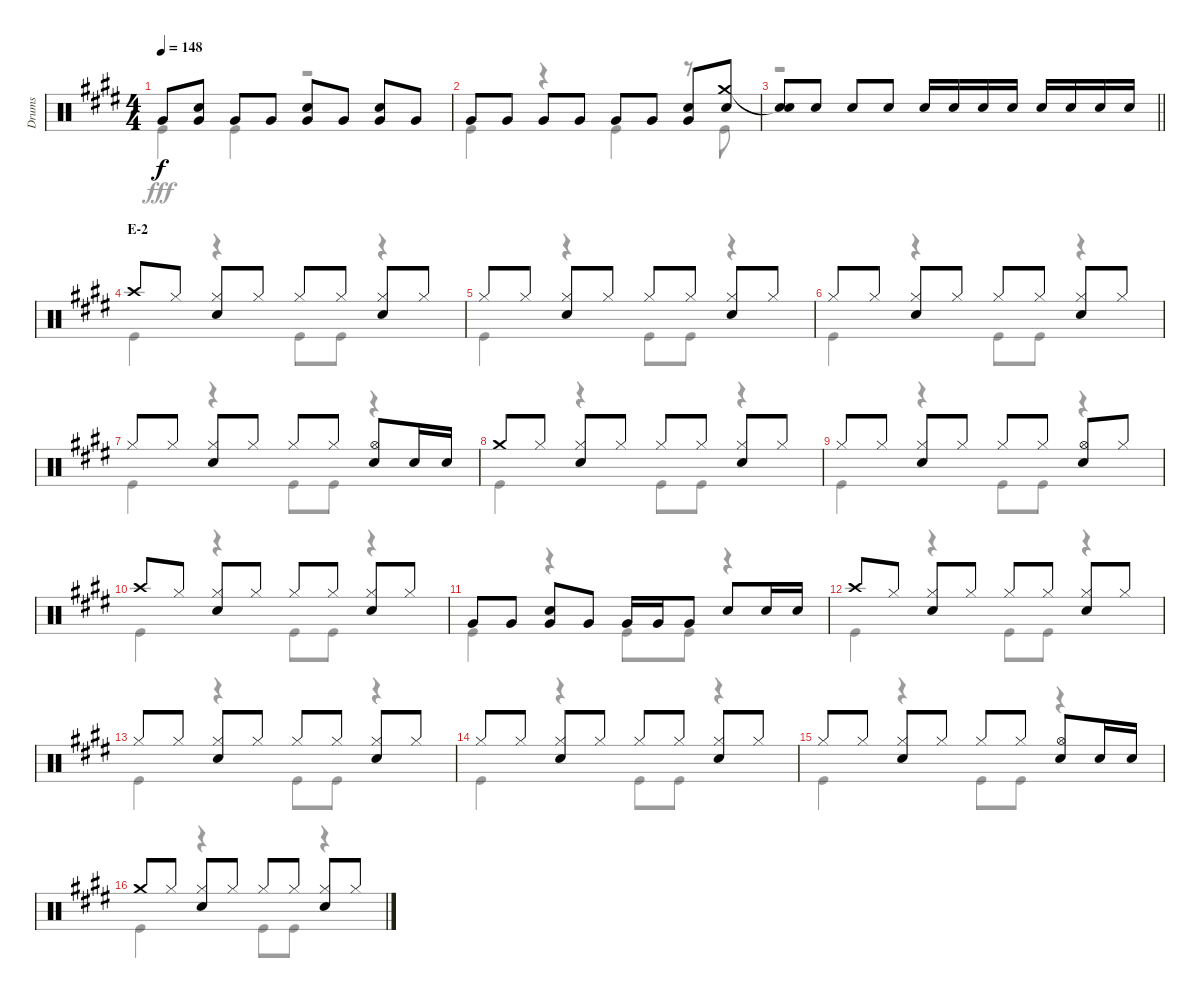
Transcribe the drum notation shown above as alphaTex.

\track ("Drums" "Drums") {instrument percussion}
\staff {score}
\articulation defaults
\voice
\ts (4 4)
\tempo 148
\clef neutral
\ks e "Very Low Tom (hit)".8{dy f}
("Snare (hit) 2" "Very Low Tom (hit)").8 "Very Low Tom (hit)".8 "Very Low Tom (hit)".8 ("Snare (hit) 2" "Very Low Tom (hit)").8 "Very Low Tom (hit)".8 ("Snare (hit) 2" "Very Low Tom (hit)").8 "Very Low Tom (hit)".8 |
"Very Low Tom (hit)".8 "Very Low Tom (hit)".8 "Very Low Tom (hit)".8 "Very Low Tom (hit)".8 "Very Low Tom (hit)".8 "Very Low Tom (hit)".8 ("Snare (hit) 2" "Very Low Tom (hit)").8 ("Crash medium (hit)" "Snare (hit) 2").8 |
\barLineRight lightlight
("Snare (hit)"{t} "Snare (hit) 2").8 "Snare (hit) 2".8 "Snare (hit) 2".8 "Snare (hit) 2".8 "Snare (hit) 2".16 "Snare (hit) 2".16 "Snare (hit) 2".16 "Snare (hit) 2".16 "Snare (hit) 2".16 "Snare (hit) 2".16 "Snare (hit) 2".16 "Snare (hit) 2".16 |
\section ("" "E-2")
"Crash high (hit)".8 "Hi-Hat (closed)".8 ("Hi-Hat (closed)" "Snare (hit) 2").8 "Hi-Hat (closed)".8 "Hi-Hat (closed)".8 "Hi-Hat (closed)".8 ("Hi-Hat (closed)" "Snare (hit) 2").8 "Hi-Hat (closed)".8 |
"Hi-Hat (closed)".8 "Hi-Hat (closed)".8 ("Hi-Hat (closed)" "Snare (hit) 2").8 "Hi-Hat (closed)".8 "Hi-Hat (closed)".8 "Hi-Hat (closed)".8 ("Hi-Hat (closed)" "Snare (hit) 2").8 "Hi-Hat (closed)".8 |
"Hi-Hat (closed)".8 "Hi-Hat (closed)".8 ("Hi-Hat (closed)" "Snare (hit) 2").8 "Hi-Hat (closed)".8 "Hi-Hat (closed)".8 "Hi-Hat (closed)".8 ("Hi-Hat (closed)" "Snare (hit) 2").8 "Hi-Hat (closed)".8 |
"Hi-Hat (closed)".8 "Hi-Hat (closed)".8 ("Hi-Hat (closed)" "Snare (hit) 2").8 "Hi-Hat (closed)".8 "Hi-Hat (closed)".8 "Hi-Hat (closed)".8 ("Hi-Hat (open)" "Snare (hit) 2").8 "Snare (hit) 2".16 "Snare (hit) 2".16 |
"Crash medium (hit)".8 "Hi-Hat (closed)".8 ("Hi-Hat (closed)" "Snare (hit) 2").8 "Hi-Hat (closed)".8 "Hi-Hat (closed)".8 "Hi-Hat (closed)".8 ("Hi-Hat (closed)" "Snare (hit) 2").8 "Hi-Hat (closed)".8 |
"Hi-Hat (closed)".8 "Hi-Hat (closed)".8 ("Hi-Hat (closed)" "Snare (hit) 2").8 "Hi-Hat (closed)".8 "Hi-Hat (closed)".8 "Hi-Hat (closed)".8 ("Hi-Hat (open)" "Snare (hit) 2").8 "Hi-Hat (closed)".8 |
"Crash high (hit)".8 "Hi-Hat (closed)".8 ("Hi-Hat (closed)" "Snare (hit) 2").8 "Hi-Hat (closed)".8 "Hi-Hat (closed)".8 "Hi-Hat (closed)".8 ("Hi-Hat (closed)" "Snare (hit) 2").8 "Hi-Hat (closed)".8 |
"Very Low Tom (hit)".8 "Very Low Tom (hit)".8 ("Snare (hit) 2" "Very Low Tom (hit)").8 "Very Low Tom (hit)".8 "Very Low Tom (hit)".16 "Very Low Tom (hit)".16 "Very Low Tom (hit)".8 "Snare (hit) 2".8 "Snare (hit) 2".16 "Snare (hit) 2".16 |
"Crash high (hit)".8 "Hi-Hat (closed)".8 ("Hi-Hat (closed)" "Snare (hit) 2").8 "Hi-Hat (closed)".8 "Hi-Hat (closed)".8 "Hi-Hat (closed)".8 ("Hi-Hat (closed)" "Snare (hit) 2").8 "Hi-Hat (closed)".8 |
"Hi-Hat (closed)".8 "Hi-Hat (closed)".8 ("Hi-Hat (closed)" "Snare (hit) 2").8 "Hi-Hat (closed)".8 "Hi-Hat (closed)".8 "Hi-Hat (closed)".8 ("Hi-Hat (closed)" "Snare (hit) 2").8 "Hi-Hat (closed)".8 |
"Hi-Hat (closed)".8 "Hi-Hat (closed)".8 ("Hi-Hat (closed)" "Snare (hit) 2").8 "Hi-Hat (closed)".8 "Hi-Hat (closed)".8 "Hi-Hat (closed)".8 ("Hi-Hat (closed)" "Snare (hit) 2").8 "Hi-Hat (closed)".8 |
"Hi-Hat (closed)".8 "Hi-Hat (closed)".8 ("Hi-Hat (closed)" "Snare (hit) 2").8 "Hi-Hat (closed)".8 "Hi-Hat (closed)".8 "Hi-Hat (closed)".8 ("Hi-Hat (open)" "Snare (hit) 2").8 "Snare (hit) 2".16 "Snare (hit) 2".16 |
"Crash medium (hit)".8 "Hi-Hat (closed)".8 ("Hi-Hat (closed)" "Snare (hit) 2").8 "Hi-Hat (closed)".8 "Hi-Hat (closed)".8 "Hi-Hat (closed)".8 ("Hi-Hat (closed)" "Snare (hit) 2").8 "Hi-Hat (closed)".8
\voice
\clef neutral
\ottava regular
\simile none
\ks e "Kick (hit)".4{dy fff} "Kick (hit)".4
r.2 |
"Kick (hit)".4 r.4 "Kick (hit)".4 r.8 "Kick (hit)".8 |
\barLineRight lightlight
r.1 |
"Kick (hit)".4 r.4 "Kick (hit)".8 "Kick (hit)".8 r.4 |
"Kick (hit)".4 r.4 "Kick (hit)".8 "Kick (hit)".8 r.4 |
"Kick (hit)".4 r.4 "Kick (hit)".8 "Kick (hit)".8 r.4 |
"Kick (hit)".4 r.4 "Kick (hit)".8 "Kick (hit)".8 r.4 |
"Kick (hit)".4 r.4 "Kick (hit)".8 "Kick (hit)".8 r.4 |
"Kick (hit)".4 r.4 "Kick (hit)".8 "Kick (hit)".8 r.4 |
"Kick (hit)".4 r.4 "Kick (hit)".8 "Kick (hit)".8 r.4 |
"Kick (hit)".4 r.4 "Kick (hit)".8 "Kick (hit)".8 r.4 |
"Kick (hit)".4 r.4 "Kick (hit)".8 "Kick (hit)".8 r.4 |
"Kick (hit)".4 r.4 "Kick (hit)".8 "Kick (hit)".8 r.4 |
"Kick (hit)".4 r.4 "Kick (hit)".8 "Kick (hit)".8 r.4 |
"Kick (hit)".4 r.4 "Kick (hit)".8 "Kick (hit)".8 r.4 |
"Kick (hit)".4 r.4 "Kick (hit)".8 "Kick (hit)".8 r.4
